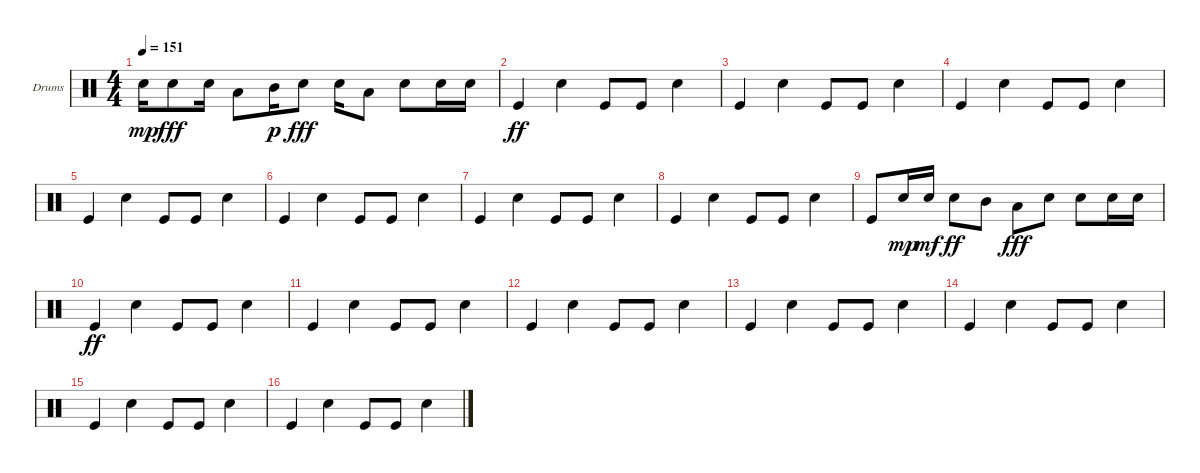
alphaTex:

\defaultSystemsLayout 4
\bracketExtendMode groupsimilarinstruments
\firstSystemTrackNameOrientation horizontal
\otherSystemsTrackNameOrientation horizontal
\track ("Helders" "Drums") {instrument percussion}
\staff {score}
\articulation defaults
\ts (4 4)
\tempo 151
\clef neutral
\ks c "Snare (hit) 2".16{dy mp} "Snare (hit) 2".8{dy fff} "Snare (hit) 2".16 "Low Tom (hit)".8 "Mid Tom (hit)".16{dy p} "Snare (hit) 2".8{dy fff} "Snare (hit) 2".16 "Low Tom (hit)".8 "Snare (hit) 2".8 "Snare (hit) 2".16 "Snare (hit) 2".16
|
"Kick (hit)".4{dy ff} "Snare (hit) 2".4 "Kick (hit)".8 "Kick (hit)".8 "Snare (hit) 2".4 |
"Kick (hit)".4 "Snare (hit) 2".4 "Kick (hit)".8 "Kick (hit)".8 "Snare (hit) 2".4 |
"Kick (hit)".4 "Snare (hit) 2".4 "Kick (hit)".8 "Kick (hit)".8 "Snare (hit) 2".4 |
"Kick (hit)".4 "Snare (hit) 2".4 "Kick (hit)".8 "Kick (hit)".8 "Snare (hit) 2".4 |
"Kick (hit)".4 "Snare (hit) 2".4 "Kick (hit)".8 "Kick (hit)".8 "Snare (hit) 2".4 |
"Kick (hit)".4 "Snare (hit) 2".4 "Kick (hit)".8 "Kick (hit)".8 "Snare (hit) 2".4 |
"Kick (hit)".4 "Snare (hit) 2".4 "Kick (hit)".8 "Kick (hit)".8 "Snare (hit) 2".4 |
"Kick (hit)".8 "Snare (hit) 2".16{dy mp} "Snare (hit) 2".16{dy mf} "Snare (hit) 2".8{dy ff} "Mid Tom (hit)".8 "Low Tom (hit)".8{dy fff} "Snare (hit) 2".8 "Snare (hit) 2".8 "Snare (hit) 2".16 "Snare (hit) 2".16 |
"Kick (hit)".4{dy ff} "Snare (hit) 2".4 "Kick (hit)".8 "Kick (hit)".8 "Snare (hit) 2".4 |
"Kick (hit)".4 "Snare (hit) 2".4 "Kick (hit)".8 "Kick (hit)".8 "Snare (hit) 2".4 |
"Kick (hit)".4 "Snare (hit) 2".4 "Kick (hit)".8 "Kick (hit)".8 "Snare (hit) 2".4 |
"Kick (hit)".4 "Snare (hit) 2".4 "Kick (hit)".8 "Kick (hit)".8 "Snare (hit) 2".4 |
"Kick (hit)".4 "Snare (hit) 2".4 "Kick (hit)".8 "Kick (hit)".8 "Snare (hit) 2".4 |
"Kick (hit)".4 "Snare (hit) 2".4 "Kick (hit)".8 "Kick (hit)".8 "Snare (hit) 2".4 |
"Kick (hit)".4 "Snare (hit) 2".4 "Kick (hit)".8 "Kick (hit)".8 "Snare (hit) 2".4
